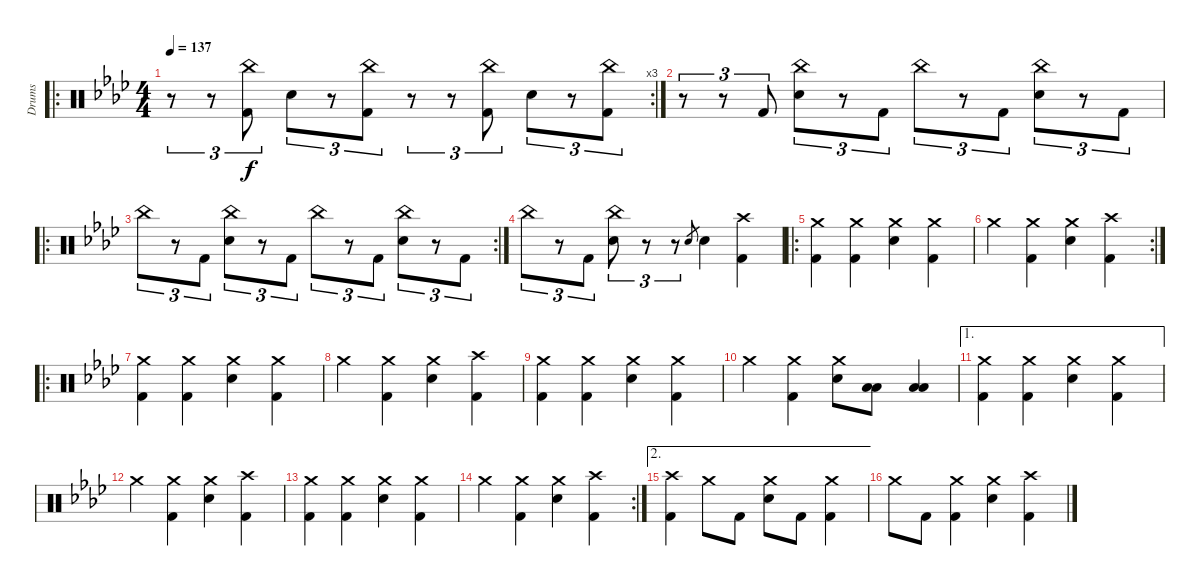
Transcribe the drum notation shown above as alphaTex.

\track ("Drums" "Drums") {instrument percussion}
\staff {score}
\articulation defaults
\ro
\rc 3
\ts (4 4)
\tempo 137
\clef neutral
\ks ab
r.8{tu (3 2) dy f} r.8{tu (3 2)} ("China (hit)" "Kick (hit) 2").8{tu (3 2)} "Electric Snare (hit)".8{tu (3 2)} r.8{tu (3 2)} ("China (hit)" "Kick (hit) 2").8{tu (3 2)} r.8{tu (3 2)} r.8{tu (3 2)} ("China (hit)" "Kick (hit) 2").8{tu (3 2)} "Electric Snare (hit)".8{tu (3 2)} r.8{tu (3 2)} ("China (hit)" "Kick (hit) 2").8{tu (3 2)} |
r.8{tu (3 2)} r.8{tu (3 2)} "Kick (hit) 2".8{tu (3 2)} ("China (hit)" "Electric Snare (hit)").8{tu (3 2)} r.8{tu (3 2)} "Kick (hit) 2".8{tu (3 2)} "China (hit)".8{tu (3 2)} r.8{tu (3 2)} "Kick (hit) 2".8{tu (3 2)} ("China (hit)" "Electric Snare (hit)").8{tu (3 2)} r.8{tu (3 2)} "Kick (hit) 2".8{tu (3 2)} |
\ro
\rc 2 "China (hit)".8{tu (3 2)}
r.8{tu (3 2)} "Kick (hit) 2".8{tu (3 2)} ("China (hit)" "Electric Snare (hit)").8{tu (3 2)} r.8{tu (3 2)} "Kick (hit) 2".8{tu (3 2)} "China (hit)".8{tu (3 2)} r.8{tu (3 2)} "Kick (hit) 2".8{tu (3 2)} ("China (hit)" "Electric Snare (hit)").8{tu (3 2)} r.8{tu (3 2)} "Kick (hit) 2".8{tu (3 2)} |
"China (hit)".8{tu (3 2)} r.8{tu (3 2)} "Kick (hit) 2".8{tu (3 2)} ("China (hit)" "Electric Snare (hit)").8{tu (3 2)} r.8{tu (3 2)} r.8{tu (3 2)} "Electric Snare (hit)".8{gr} "Electric Snare (hit)".4 ("Crash high (hit)" "Kick (hit) 2").4 |
\ro
("Crash medium (hit)" "Kick (hit) 2").4 ("Crash medium (hit)" "Kick (hit) 2").4 ("Crash medium (hit)" "Electric Snare (hit)").4 ("Crash medium (hit)" "Kick (hit) 2").4 |
\rc 2 "Crash medium (hit)".4
("Crash medium (hit)" "Kick (hit) 2").4 ("Crash medium (hit)" "Electric Snare (hit)").4 ("Crash high (hit)" "Kick (hit) 2").4 |
\ro
("Crash medium (hit)" "Kick (hit) 2").4 ("Crash medium (hit)" "Kick (hit) 2").4 ("Crash medium (hit)" "Electric Snare (hit)").4 ("Crash medium (hit)" "Kick (hit) 2").4 |
"Crash medium (hit)".4 ("Crash medium (hit)" "Kick (hit) 2").4 ("Crash medium (hit)" "Electric Snare (hit)").4 ("Crash high (hit)" "Kick (hit) 2").4 |
("Crash medium (hit)" "Kick (hit) 2").4 ("Crash medium (hit)" "Kick (hit) 2").4 ("Crash medium (hit)" "Electric Snare (hit)").4 ("Crash medium (hit)" "Kick (hit) 2").4 |
"Crash medium (hit)".4 ("Crash medium (hit)" "Kick (hit) 2").4 ("Crash medium (hit)" "Electric Snare (hit)").8 ("Low Tom (hit)" "Low Tom (hit)").8 ("Low Tom (hit)" "Low Tom (hit)").4 |
\ae 1
("Crash medium (hit)" "Kick (hit) 2").4 ("Crash medium (hit)" "Kick (hit) 2").4 ("Crash medium (hit)" "Electric Snare (hit)").4 ("Crash medium (hit)" "Kick (hit) 2").4 |
"Crash medium (hit)".4 ("Crash medium (hit)" "Kick (hit) 2").4 ("Crash medium (hit)" "Electric Snare (hit)").4 ("Crash high (hit)" "Kick (hit) 2").4 |
("Crash medium (hit)" "Kick (hit) 2").4 ("Crash medium (hit)" "Kick (hit) 2").4 ("Crash medium (hit)" "Electric Snare (hit)").4 ("Crash medium (hit)" "Kick (hit) 2").4 |
\rc 2 "Crash medium (hit)".4
("Crash medium (hit)" "Kick (hit) 2").4 ("Crash medium (hit)" "Electric Snare (hit)").4 ("Crash high (hit)" "Kick (hit) 2").4 |
\ae 2
("Crash high (hit)" "Kick (hit) 2").4 "Crash medium (hit)".8 "Kick (hit) 2".8 ("Crash medium (hit)" "Electric Snare (hit)").8 "Kick (hit) 2".8 ("Crash medium (hit)" "Kick (hit) 2").4 |
"Crash medium (hit)".8 "Kick (hit) 2".8 ("Crash medium (hit)" "Kick (hit) 2").4 ("Crash medium (hit)" "Electric Snare (hit)").4 ("Crash high (hit)" "Kick (hit) 2").4
